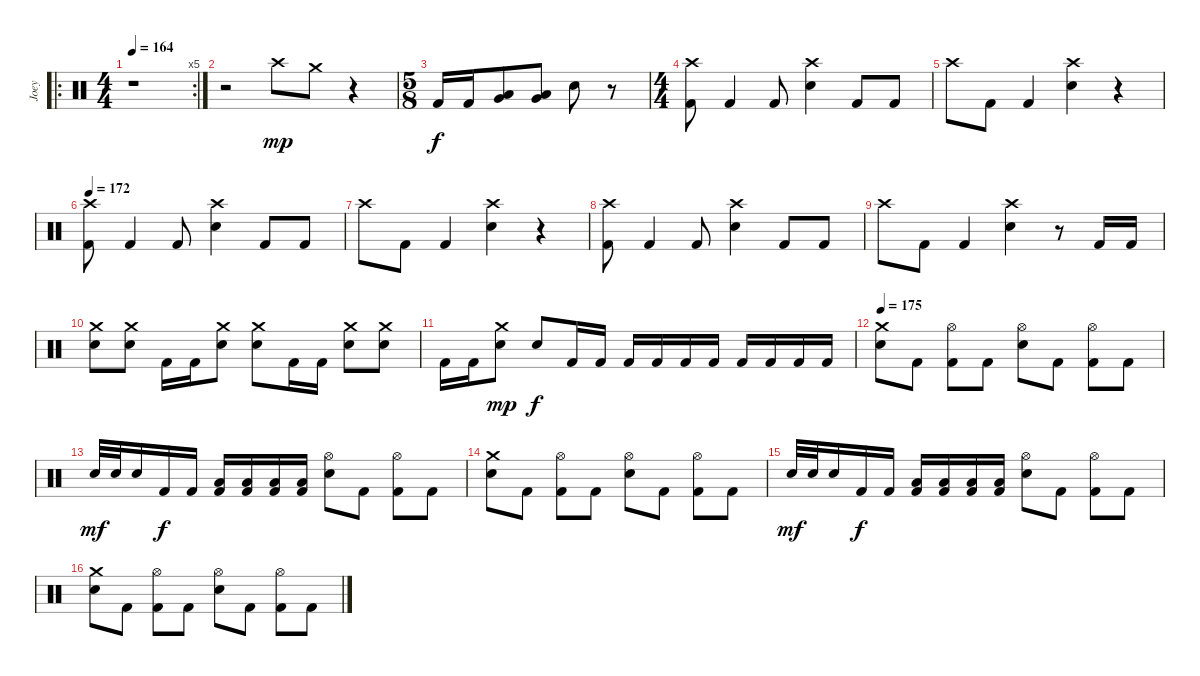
\track ("Joey" "Joey") {instrument percussion}
\staff {score}
\articulation defaults
\ro
\rc 5
\ts (4 4)
\tempo 164
\clef neutral
\ks c
r.1{dy f} |
r.2 "Crash high (hit)".8{dy mp} "Crash medium (hit)".8 r.4 |
\ts (5 8)
"Kick (hit) 2".16{dy f} "Kick (hit) 2".16 ("Very Low Tom (hit)" "Low Floor Tom (hit)").8 ("Very Low Tom (hit)" "Low Floor Tom (hit)").8 "Electric Snare (hit)".8 r.8 |
\ts (4 4)
("Crash high (hit)" "Kick (hit) 2").8 "Kick (hit) 2".4 "Kick (hit) 2".8 ("Crash high (hit)" "Electric Snare (hit)").4 "Kick (hit) 2".8 "Kick (hit) 2".8 |
"Crash high (hit)".8 "Kick (hit) 2".8 "Kick (hit) 2".4 ("Crash high (hit)" "Electric Snare (hit)").4 r.4 |
\tempo 172
("Crash high (hit)" "Kick (hit) 2").8 "Kick (hit) 2".4 "Kick (hit) 2".8 ("Crash high (hit)" "Electric Snare (hit)").4 "Kick (hit) 2".8 "Kick (hit) 2".8 |
"Crash high (hit)".8 "Kick (hit) 2".8 "Kick (hit) 2".4 ("Crash high (hit)" "Electric Snare (hit)").4 r.4 |
("Crash high (hit)" "Kick (hit) 2").8 "Kick (hit) 2".4 "Kick (hit) 2".8 ("Crash high (hit)" "Electric Snare (hit)").4 "Kick (hit) 2".8 "Kick (hit) 2".8 |
"Crash high (hit)".8 "Kick (hit) 2".8 "Kick (hit) 2".4 ("Crash high (hit)" "Electric Snare (hit)").4 r.8 "Kick (hit) 2".16 "Kick (hit) 2".16 |
("Crash medium (hit)" "Electric Snare (hit)").8 ("Crash medium (hit)" "Electric Snare (hit)").8 "Kick (hit) 2".16 "Kick (hit) 2".16 ("Crash medium (hit)" "Electric Snare (hit)").8 ("Crash medium (hit)" "Electric Snare (hit)").8 "Kick (hit) 2".16 "Kick (hit) 2".16 ("Crash medium (hit)" "Electric Snare (hit)").8 ("Crash medium (hit)" "Electric Snare (hit)").8 |
"Kick (hit) 2".16 "Kick (hit) 2".16 ("Crash medium (hit)" "Electric Snare (hit)").8{dy mp} "Electric Snare (hit)".8{dy f} "Kick (hit) 2".16 "Kick (hit) 2".16 "Kick (hit) 2".16 "Kick (hit) 2".16 "Kick (hit) 2".16 "Kick (hit) 2".16 "Kick (hit) 2".16 "Kick (hit) 2".16 "Kick (hit) 2".16 "Kick (hit) 2".16 |
\tempo 175
("Crash medium (hit)" "Electric Snare (hit)").8 "Kick (hit) 2".8 ("Hi-Hat (open)" "Kick (hit) 2").8 "Kick (hit) 2".8 ("Hi-Hat (open)" "Electric Snare (hit)").8 "Kick (hit) 2".8 ("Hi-Hat (open)" "Kick (hit) 2").8 "Kick (hit) 2".8 |
"Electric Snare (hit)".32{dy mf} "Electric Snare (hit)".32 "Electric Snare (hit)".16 "Kick (hit) 2".16{dy f} "Kick (hit) 2".16 ("Low Floor Tom (hit)" "Kick (hit) 2").16 ("Low Floor Tom (hit)" "Kick (hit) 2").16 ("Low Floor Tom (hit)" "Kick (hit) 2").16 ("Low Floor Tom (hit)" "Kick (hit) 2").16 ("Hi-Hat (open)" "Electric Snare (hit)").8 "Kick (hit) 2".8 ("Hi-Hat (open)" "Kick (hit) 2").8 "Kick (hit) 2".8 |
("Crash medium (hit)" "Electric Snare (hit)").8 "Kick (hit) 2".8 ("Hi-Hat (open)" "Kick (hit) 2").8 "Kick (hit) 2".8 ("Hi-Hat (open)" "Electric Snare (hit)").8 "Kick (hit) 2".8 ("Hi-Hat (open)" "Kick (hit) 2").8 "Kick (hit) 2".8 |
"Electric Snare (hit)".32{dy mf} "Electric Snare (hit)".32 "Electric Snare (hit)".16 "Kick (hit) 2".16{dy f} "Kick (hit) 2".16 ("Low Floor Tom (hit)" "Kick (hit) 2").16 ("Low Floor Tom (hit)" "Kick (hit) 2").16 ("Low Floor Tom (hit)" "Kick (hit) 2").16 ("Low Floor Tom (hit)" "Kick (hit) 2").16 ("Hi-Hat (open)" "Electric Snare (hit)").8 "Kick (hit) 2".8 ("Hi-Hat (open)" "Kick (hit) 2").8 "Kick (hit) 2".8 |
("Crash medium (hit)" "Electric Snare (hit)").8 "Kick (hit) 2".8 ("Hi-Hat (open)" "Kick (hit) 2").8 "Kick (hit) 2".8 ("Hi-Hat (open)" "Electric Snare (hit)").8 "Kick (hit) 2".8 ("Hi-Hat (open)" "Kick (hit) 2").8 "Kick (hit) 2".8
